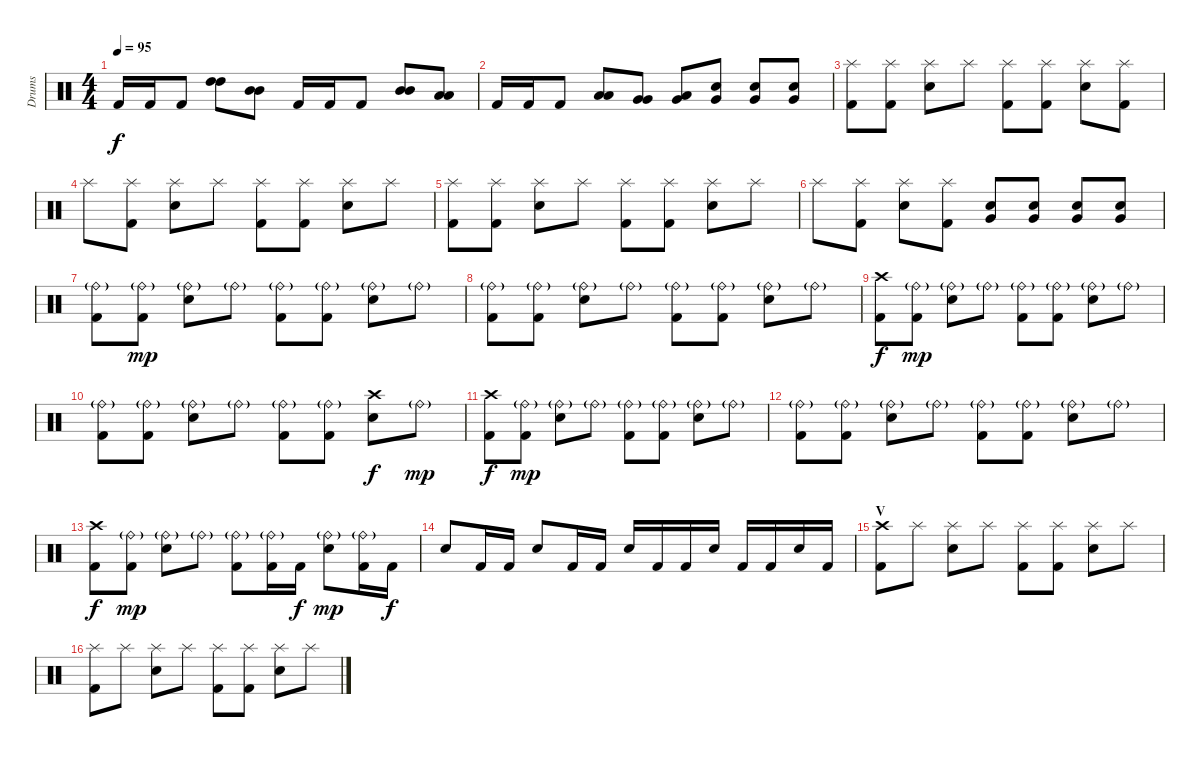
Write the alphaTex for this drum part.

\track ("Drums" "Drums") {instrument percussion}
\staff {score}
\articulation defaults
\ts (4 4)
\tempo 95
\clef neutral
\ks c "Kick (hit) 2".16{dy f} "Kick (hit) 2".16 "Kick (hit) 2".8
("High Tom (hit)" "High Tom (hit)").8{bd 60} ("Mid Tom (hit)" "Mid Tom (hit)").8{bd 60} "Kick (hit) 2".16 "Kick (hit) 2".16 "Kick (hit) 2".8 ("Mid Tom (hit)" "Mid Tom (hit)").8{bd 60} ("Low Tom (hit)" "Low Tom (hit)").8{bd 60} |
"Kick (hit) 2".16 "Kick (hit) 2".16 "Kick (hit) 2".8 ("Low Tom (hit)" "Low Tom (hit)").8{bd 60} ("Very Low Tom (hit)" "Very Low Tom (hit)").8{bd 60} ("Very Low Tom (hit)" "Low Tom (hit)").8 ("Very Low Tom (hit)" "Electric Snare (hit)").8 ("Very Low Tom (hit)" "Electric Snare (hit)").8 ("Very Low Tom (hit)" "Electric Snare (hit)").8 |
("Splash (hit)" "Kick (hit) 2").8 ("Splash (hit)" "Kick (hit) 2").8 ("Splash (hit)" "Electric Snare (hit)").8 "Splash (hit)".8 ("Splash (hit)" "Kick (hit) 2").8 ("Splash (hit)" "Kick (hit) 2").8 ("Splash (hit)" "Electric Snare (hit)").8 ("Splash (hit)" "Kick (hit) 2").8 |
"Splash (hit)".8 ("Splash (hit)" "Kick (hit) 2").8 ("Splash (hit)" "Electric Snare (hit)").8 "Splash (hit)".8 ("Splash (hit)" "Kick (hit) 2").8 ("Splash (hit)" "Kick (hit) 2").8 ("Splash (hit)" "Electric Snare (hit)").8 "Splash (hit)".8 |
("Splash (hit)" "Kick (hit) 2").8 ("Splash (hit)" "Kick (hit) 2").8 ("Splash (hit)" "Electric Snare (hit)").8 "Splash (hit)".8 ("Splash (hit)" "Kick (hit) 2").8 ("Splash (hit)" "Kick (hit) 2").8 ("Splash (hit)" "Electric Snare (hit)").8 "Splash (hit)".8 |
"Splash (hit)".8 ("Splash (hit)" "Kick (hit) 2").8 ("Splash (hit)" "Electric Snare (hit)").8 ("Splash (hit)" "Kick (hit) 2").8 ("Very Low Tom (hit)" "Electric Snare (hit)").8 ("Very Low Tom (hit)" "Electric Snare (hit)").8 ("Very Low Tom (hit)" "Electric Snare (hit)").8 ("Very Low Tom (hit)" "Electric Snare (hit)").8 |
("Ride (bell)"{g} "Kick (hit) 2").8 ("Ride (bell)"{g} "Kick (hit) 2").8{dy mp} ("Ride (bell)"{g} "Electric Snare (hit)").8 "Ride (bell)"{g}.8 ("Ride (bell)"{g} "Kick (hit) 2").8 ("Ride (bell)"{g} "Kick (hit) 2").8 ("Ride (bell)"{g} "Electric Snare (hit)").8 "Ride (bell)"{g}.8 |
("Ride (bell)"{g} "Kick (hit) 2").8 ("Ride (bell)"{g} "Kick (hit) 2").8 ("Ride (bell)"{g} "Electric Snare (hit)").8 "Ride (bell)"{g}.8 ("Ride (bell)"{g} "Kick (hit) 2").8 ("Ride (bell)"{g} "Kick (hit) 2").8 ("Ride (bell)"{g} "Electric Snare (hit)").8 "Ride (bell)"{g}.8 |
("Crash high (hit)" "Kick (hit) 2").8{dy f} ("Ride (bell)"{g} "Kick (hit) 2").8{dy mp} ("Ride (bell)"{g} "Electric Snare (hit)").8 "Ride (bell)"{g}.8 ("Ride (bell)"{g} "Kick (hit) 2").8 ("Ride (bell)"{g} "Kick (hit) 2").8 ("Ride (bell)"{g} "Electric Snare (hit)").8 "Ride (bell)"{g}.8 |
("Ride (bell)"{g} "Kick (hit) 2").8 ("Ride (bell)"{g} "Kick (hit) 2").8 ("Ride (bell)"{g} "Electric Snare (hit)").8 "Ride (bell)"{g}.8 ("Ride (bell)"{g} "Kick (hit) 2").8 ("Ride (bell)"{g} "Kick (hit) 2").8 ("Crash high (hit)" "Electric Snare (hit)").8{dy f} "Ride (bell)"{g}.8{dy mp} |
("Crash high (hit)" "Kick (hit) 2").8{dy f} ("Ride (bell)"{g} "Kick (hit) 2").8{dy mp} ("Ride (bell)"{g} "Electric Snare (hit)").8 "Ride (bell)"{g}.8 ("Ride (bell)"{g} "Kick (hit) 2").8 ("Ride (bell)"{g} "Kick (hit) 2").8 ("Ride (bell)"{g} "Electric Snare (hit)").8 "Ride (bell)"{g}.8 |
("Ride (bell)"{g} "Kick (hit) 2").8 ("Ride (bell)"{g} "Kick (hit) 2").8 ("Ride (bell)"{g} "Electric Snare (hit)").8 "Ride (bell)"{g}.8 ("Ride (bell)"{g} "Kick (hit) 2").8 ("Ride (bell)"{g} "Kick (hit) 2").8 ("Ride (bell)"{g} "Electric Snare (hit)").8 "Ride (bell)"{g}.8 |
("Crash high (hit)" "Kick (hit) 2").8{dy f} ("Ride (bell)"{g} "Kick (hit) 2").8{dy mp} ("Ride (bell)"{g} "Electric Snare (hit)").8 "Ride (bell)"{g}.8 ("Ride (bell)"{g} "Kick (hit) 2").8 ("Ride (bell)"{g} "Kick (hit) 2").16 "Kick (hit) 2".16{dy f} ("Ride (bell)"{g} "Electric Snare (hit)").8{dy mp} ("Ride (bell)"{g} "Kick (hit) 2").16 "Kick (hit) 2".16{dy f} |
"Electric Snare (hit)".8 "Kick (hit) 2".16 "Kick (hit) 2".16 "Electric Snare (hit)".8 "Kick (hit) 2".16 "Kick (hit) 2".16 "Electric Snare (hit)".16 "Kick (hit) 2".16 "Kick (hit) 2".16 "Electric Snare (hit)".16 "Kick (hit) 2".16 "Kick (hit) 2".16 "Electric Snare (hit)".16 "Kick (hit) 2".16 |
\section ("" "V")
("Crash high (hit)" "Kick (hit) 2").8 "Splash (hit)".8 ("Splash (hit)" "Electric Snare (hit)").8 "Splash (hit)".8 ("Splash (hit)" "Kick (hit) 2").8 ("Splash (hit)" "Kick (hit) 2").8 ("Splash (hit)" "Electric Snare (hit)").8 "Splash (hit)".8 |
("Splash (hit)" "Kick (hit) 2").8 "Splash (hit)".8 ("Splash (hit)" "Electric Snare (hit)").8 "Splash (hit)".8 ("Splash (hit)" "Kick (hit) 2").8 ("Splash (hit)" "Kick (hit) 2").8 ("Splash (hit)" "Electric Snare (hit)").8 "Splash (hit)".8
